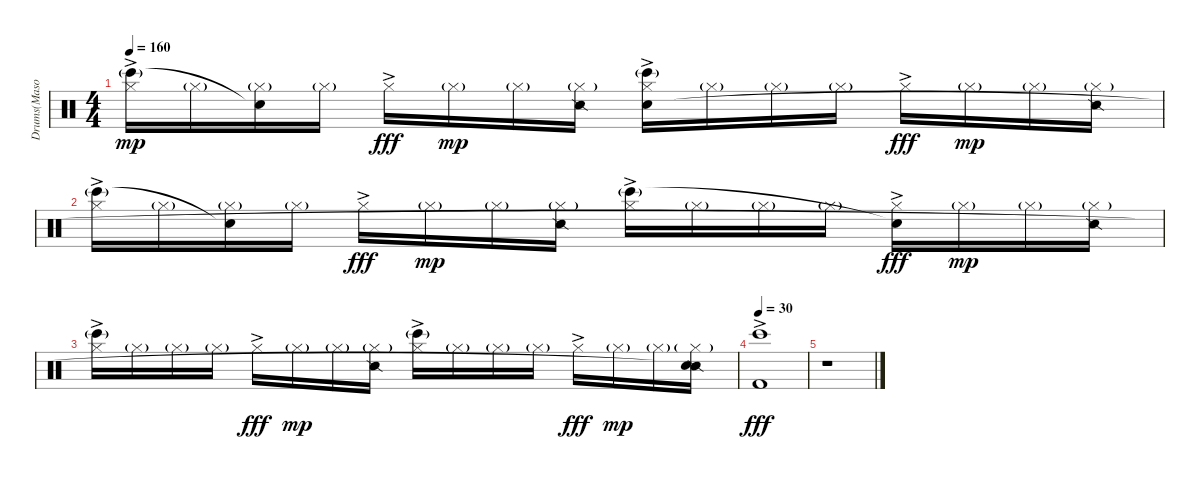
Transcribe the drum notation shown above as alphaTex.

\track ("Drums(Mason)" "Drums(Maso") {instrument percussion}
\staff {score}
\articulation defaults
\ts (4 4)
\tempo 160
\clef neutral
\ks c
("Hi-Hat (closed)"{ac} "Bongo High (hit)"{g}).16{dy mp} "Hi-Hat (closed)"{g}.16 ("Hi-Hat (closed)"{g} "Snare (hit)"{t}).16 "Hi-Hat (closed)"{g}.16 "Hi-Hat (closed)"{ac}.16{dy fff} "Hi-Hat (closed)"{g}.16{dy mp} "Hi-Hat (closed)"{g}.16 ("Hi-Hat (closed)"{g} "Snare (side stick) 2").16 ("Hi-Hat (closed)"{ac} "Bongo High (hit)"{g} "Snare (hit)"{t}).16 "Hi-Hat (closed)"{g}.16 "Hi-Hat (closed)"{g}.16 "Hi-Hat (closed)"{g}.16 "Hi-Hat (closed)"{ac}.16{dy fff} "Hi-Hat (closed)"{g}.16{dy mp} "Hi-Hat (closed)"{g}.16 ("Hi-Hat (closed)"{g} "Snare (side stick) 2").16 |
("Hi-Hat (closed)"{ac} "Bongo High (hit)"{g}).16 "Hi-Hat (closed)"{g}.16 ("Hi-Hat (closed)"{g} "Snare (hit)"{t}).16 "Hi-Hat (closed)"{g}.16 "Hi-Hat (closed)"{ac}.16{dy fff} "Hi-Hat (closed)"{g}.16{dy mp} "Hi-Hat (closed)"{g}.16 ("Hi-Hat (closed)"{g} "Snare (side stick) 2").16 ("Hi-Hat (closed)"{ac} "Bongo High (hit)"{g}).16 "Hi-Hat (closed)"{g}.16 "Hi-Hat (closed)"{g}.16 "Hi-Hat (closed)"{g}.16 ("Hi-Hat (closed)"{ac} "Snare (hit)"{t}).16{dy fff} "Hi-Hat (closed)"{g}.16{dy mp} "Hi-Hat (closed)"{g}.16 ("Hi-Hat (closed)"{g} "Snare (side stick) 2").16 |
("Hi-Hat (closed)"{ac} "Bongo High (hit)"{g}).16 "Hi-Hat (closed)"{g}.16 "Hi-Hat (closed)"{g}.16 "Hi-Hat (closed)"{g}.16 "Hi-Hat (closed)"{ac}.16{dy fff} "Hi-Hat (closed)"{g}.16{dy mp} "Hi-Hat (closed)"{g}.16 ("Hi-Hat (closed)"{g} "Snare (side stick) 2").16 ("Hi-Hat (closed)"{ac} "Bongo High (hit)"{g}).16 "Hi-Hat (closed)"{g}.16 "Hi-Hat (closed)"{g}.16 "Hi-Hat (closed)"{g}.16 "Hi-Hat (closed)"{ac}.16{dy fff} "Hi-Hat (closed)"{g}.16{dy mp} "Hi-Hat (closed)"{g}.16 ("Hi-Hat (closed)"{g} "Snare (side stick) 2" "Snare (hit)"{t}).16 |
\tempo 30
("Bongo High (hit)"{ac} "Kick (hit) 2").1{dy fff} |
r.1
